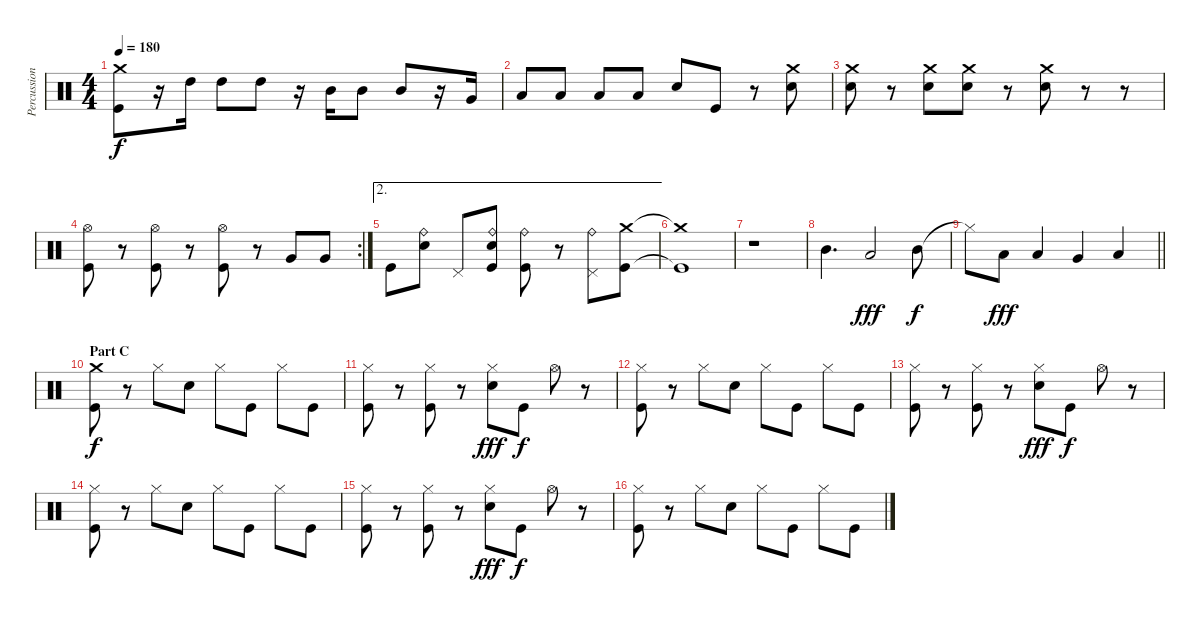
\track ("Percussion" "Percussion") {instrument percussion}
\staff {score}
\articulation defaults
\ts (4 4)
\tempo 180
\clef neutral
\ks c
("Crash medium (hit)"{t} "Kick (hit)"{t}).8{dy f} r.16 "High Tom (hit)".16 "High Tom (hit)".8 "High Tom (hit)".8 r.16 "Mid Tom (hit)".16 "Mid Tom (hit)".8 "Mid Tom (hit)".8 r.16 "Very Low Tom (hit)".16 |
"Low Floor Tom (hit)".8 "Low Floor Tom (hit)".8 "Low Floor Tom (hit)".8 "Low Floor Tom (hit)".8 "Electric Snare (hit)".8 "Kick (hit)".8 r.8 ("Crash medium (hit)" "Electric Snare (hit)").8 |
("Crash medium (hit)" "Electric Snare (hit)").8 r.8 ("Crash medium (hit)" "Electric Snare (hit)").8 ("Crash medium (hit)" "Electric Snare (hit)").8 r.8 ("Crash medium (hit)" "Electric Snare (hit)").8 r.8 r.8 |
\rc 2
("Hi-Hat (open)" "Kick (hit)").8 r.8 ("Hi-Hat (open)" "Kick (hit)").8 r.8 ("Hi-Hat (open)" "Kick (hit)").8 r.8 "Very Low Tom (hit)".8 "Very Low Tom (hit)".8 |
\ae 2 "Kick (hit)".8
("Ride (bell)" "Electric Snare (hit)").8 "Pedal Hi-Hat (hit)".8 ("Ride (bell)" "Electric Snare (hit)" "Kick (hit)").8 ("Ride (bell)" "Kick (hit)").8 r.8 ("Ride (bell)" "Pedal Hi-Hat (hit)").8 ("Crash medium (hit)" "Kick (hit)").8 |
("Crash medium (hit)"{t} "Kick (hit)"{t}).1 |
r.1 |
"Mid Tom (hit)".4{d} "Low Tom (hit)".2{dy fff} "Mid Tom (hit)".8{dy f} |
\barLineRight lightlight "Hi-Hat (closed)"{t}.8 "Low Tom (hit)".8{dy fff} "Low Tom (hit)".4 "Very Low Tom (hit)".4 "Low Floor Tom (hit)".4
|
\section ("" "Part C")
("Crash medium (hit)" "Kick (hit)").8{dy f} r.8 "Hi-Hat (closed)".8 "Electric Snare (hit)".8 "Hi-Hat (closed)".8 "Kick (hit)".8 "Hi-Hat (closed)".8 "Kick (hit)".8 |
("Hi-Hat (closed)" "Kick (hit)").8 r.8 ("Hi-Hat (closed)" "Kick (hit)").8 r.8 ("Hi-Hat (closed)" "Electric Snare (hit)").8{dy fff} "Kick (hit)".8{dy f} "Hi-Hat (open)".8 r.8 |
("Hi-Hat (closed)" "Kick (hit)").8 r.8 "Hi-Hat (closed)".8 "Electric Snare (hit)".8 "Hi-Hat (closed)".8 "Kick (hit)".8 "Hi-Hat (closed)".8 "Kick (hit)".8 |
("Hi-Hat (closed)" "Kick (hit)").8 r.8 ("Hi-Hat (closed)" "Kick (hit)").8 r.8 ("Hi-Hat (closed)" "Electric Snare (hit)").8{dy fff} "Kick (hit)".8{dy f} "Hi-Hat (open)".8 r.8 |
("Hi-Hat (closed)" "Kick (hit)").8 r.8 "Hi-Hat (closed)".8 "Electric Snare (hit)".8 "Hi-Hat (closed)".8 "Kick (hit)".8 "Hi-Hat (closed)".8 "Kick (hit)".8 |
("Hi-Hat (closed)" "Kick (hit)").8 r.8 ("Hi-Hat (closed)" "Kick (hit)").8 r.8 ("Hi-Hat (closed)" "Electric Snare (hit)").8{dy fff} "Kick (hit)".8{dy f} "Hi-Hat (open)".8 r.8 |
("Hi-Hat (closed)" "Kick (hit)").8 r.8 "Hi-Hat (closed)".8 "Electric Snare (hit)".8 "Hi-Hat (closed)".8 "Kick (hit)".8 "Hi-Hat (closed)".8 "Kick (hit)".8
